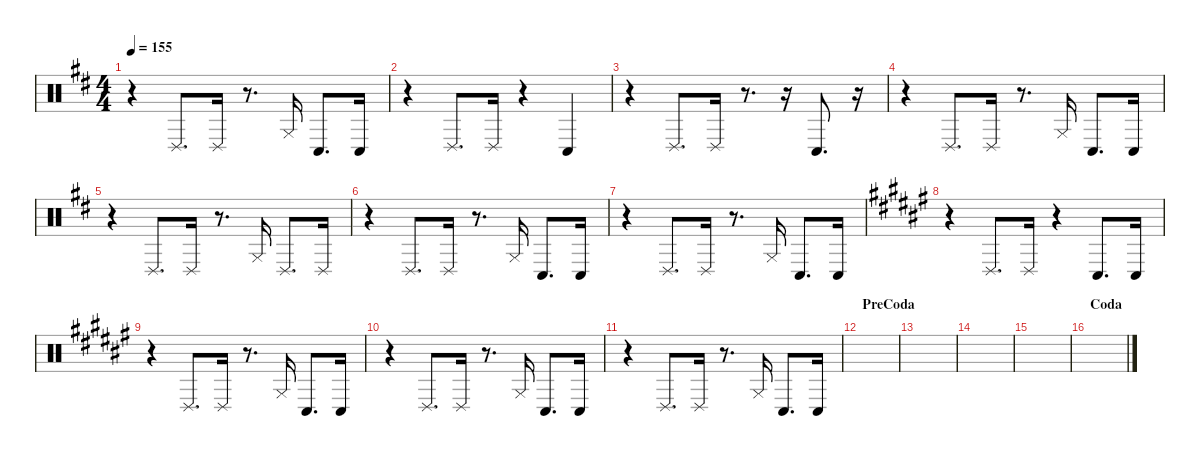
\hideDynamics
\bracketExtendMode nobrackets
\singleTrackTrackNamePolicy hidden
\multiTrackTrackNamePolicy hidden
\otherSystemsTrackNameOrientation horizontal
\track ("Bongos N Congas" "conbon") {instrument percussion}
\staff {score}
\articulation defaults
\ts (4 4)
\tempo 155
\clef neutral
\ks d
r.4{dy mp beam Down} "Conga low (slap)"{acc forcenatural}.8{d beam Up} "Conga low (slap)"{acc forcenatural}.16{beam Up} r.8{d beam Up} "Conga high (slap)"{acc forcenatural}.16{beam Up} "Conga low (hit)"{acc forcenatural}.8{d beam Up} "Conga low (hit)"{acc forcenatural}.16{beam Up} |
r.4{beam Down} "Conga low (slap)"{acc forcenatural}.8{d beam Up} "Conga low (slap)"{acc forcenatural}.16{beam Up} r.4{beam Up} "Conga low (hit)"{acc forcenatural}.4{beam Up} |
r.4{beam Down} "Conga low (slap)"{acc forcenatural}.8{d beam Up} "Conga low (slap)"{acc forcenatural}.16{beam Up} r.8{d beam Up} r.16{beam Up} "Conga low (hit)"{acc forcenatural}.8{d beam Up} r.16{beam Up} |
r.4{beam Down} "Conga low (slap)"{acc forcenatural}.8{d beam Up} "Conga low (slap)"{acc forcenatural}.16{beam Up} r.8{d beam Up} "Conga high (slap)"{acc forcenatural}.16{beam Up} "Conga low (hit)"{acc forcenatural}.8{d beam Up} "Conga low (hit)"{acc forcenatural}.16{beam Up} |
r.4{beam Down} "Conga low (slap)"{acc forcenatural}.8{d beam Up} "Conga low (slap)"{acc forcenatural}.16{beam Up} r.8{d beam Up} "Conga high (slap)"{acc forcenatural}.16{beam Up} "Conga low (slap)"{acc forcenatural}.8{d beam Up} "Conga low (slap)"{acc forcenatural}.16{beam Up} |
r.4{beam Down} "Conga low (slap)"{acc forcenatural}.8{d beam Up} "Conga low (slap)"{acc forcenatural}.16{beam Up} r.8{d beam Up} "Conga high (slap)"{acc forcenatural}.16{beam Up} "Conga low (hit)"{acc forcenatural}.8{d beam Up} "Conga low (hit)"{acc forcenatural}.16{beam Up} |
r.4{beam Down} "Conga low (slap)"{acc forcenatural}.8{d beam Up} "Conga low (slap)"{acc forcenatural}.16{beam Up} r.8{d beam Up} "Conga high (slap)"{acc forcenatural}.16{beam Up} "Conga low (hit)"{acc forcenatural}.8{d beam Up} "Conga low (hit)"{acc forcenatural}.16{beam Up} |
\scale
0.333333
\ks f#
r.4{beam Down} "Conga low (slap)"{acc forcenatural}.8{d beam Up} "Conga low (slap)"{acc forcenatural}.16{beam Up} r.4{beam Up} "Conga low (hit)"{acc forcenatural}.8{d beam Up} "Conga low (hit)"{acc forcenatural}.16{beam Up} |
\scale
0.333333 r.4{beam Down} "Conga low (slap)"{acc forcenatural}.8{d beam Up} "Conga low (slap)"{acc forcenatural}.16{beam Up} r.8{d beam Up} "Conga high (slap)"{acc forcenatural}.16{beam Up} "Conga low (hit)"{acc forcenatural}.8{d beam Up} "Conga low (hit)"{acc forcenatural}.16{beam Up} |
\scale
0.333333 r.4{beam Down} "Conga low (slap)"{acc forcenatural}.8{d beam Up} "Conga low (slap)"{acc forcenatural}.16{beam Up} r.8{d beam Up} "Conga high (slap)"{acc forcenatural}.16{beam Up} "Conga low (hit)"{acc forcenatural}.8{d beam Up} "Conga low (hit)"{acc forcenatural}.16{beam Up} |
\scale
0.333333 r.4{beam Down} "Conga low (slap)"{acc forcenatural}.8{d beam Up} "Conga low (slap)"{acc forcenatural}.16{beam Up} r.8{d beam Up} "Conga high (slap)"{acc forcenatural}.16{beam Up} "Conga low (hit)"{acc forcenatural}.8{d beam Up} "Conga low (hit)"{acc forcenatural}.16{beam Up} |
\section ("" "PreCoda")
\scale
0.333333 |
\scale
0.333333 |
\scale
0.333333 |
\scale
0.333333 |
\section ("" "Coda")
\scale
0.333333
